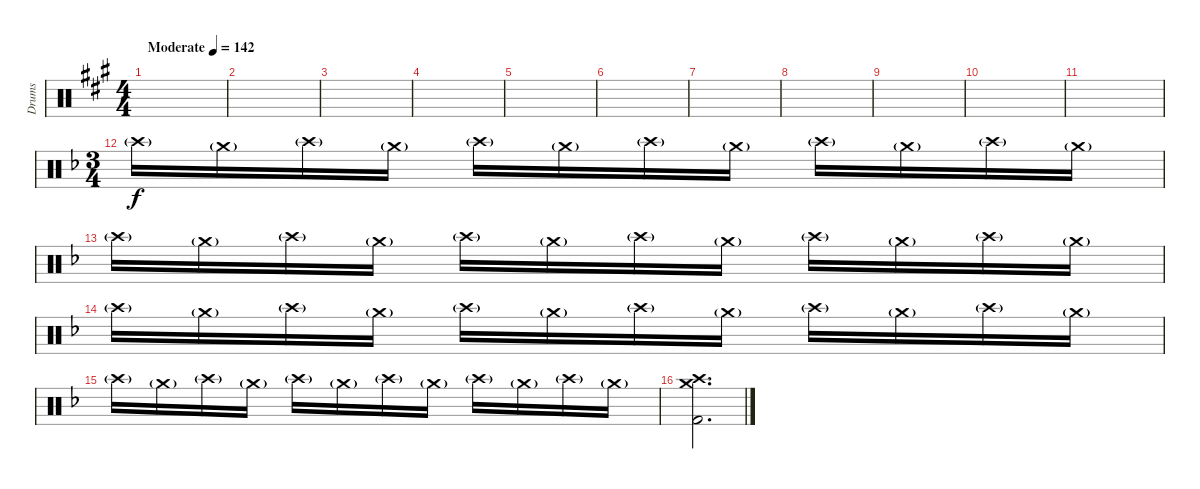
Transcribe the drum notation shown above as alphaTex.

\track ("Drums" "Drums") {instrument percussion}
\staff {score}
\articulation defaults
\ts (4 4)
\tempo (142 "Moderate")
\clef neutral
\ks f#minor
|
|
|
|
|
|
|
|
|
|
|
\ts (3 4)
\ks dminor "Crash high (hit)"{g}.16{volume 16} "Crash medium (hit)"{g}.16 "Crash high (hit)"{g}.16 "Crash medium (hit)"{g}.16 "Crash high (hit)"{g}.16 "Crash medium (hit)"{g}.16 "Crash high (hit)"{g}.16 "Crash medium (hit)"{g}.16 "Crash high (hit)"{g}.16 "Crash medium (hit)"{g}.16 "Crash high (hit)"{g}.16 "Crash medium (hit)"{g}.16
|
"Crash high (hit)"{g}.16 "Crash medium (hit)"{g}.16 "Crash high (hit)"{g}.16 "Crash medium (hit)"{g}.16 "Crash high (hit)"{g}.16 "Crash medium (hit)"{g}.16 "Crash high (hit)"{g}.16 "Crash medium (hit)"{g}.16 "Crash high (hit)"{g}.16 "Crash medium (hit)"{g}.16 "Crash high (hit)"{g}.16 "Crash medium (hit)"{g}.16 |
"Crash high (hit)"{g}.16 "Crash medium (hit)"{g}.16 "Crash high (hit)"{g}.16 "Crash medium (hit)"{g}.16 "Crash high (hit)"{g}.16 "Crash medium (hit)"{g}.16 "Crash high (hit)"{g}.16 "Crash medium (hit)"{g}.16 "Crash high (hit)"{g}.16 "Crash medium (hit)"{g}.16 "Crash high (hit)"{g}.16 "Crash medium (hit)"{g}.16 |
"Crash high (hit)"{g}.16 "Crash medium (hit)"{g}.16 "Crash high (hit)"{g}.16 "Crash medium (hit)"{g}.16 "Crash high (hit)"{g}.16 "Crash medium (hit)"{g}.16 "Crash high (hit)"{g}.16 "Crash medium (hit)"{g}.16 "Crash high (hit)"{g}.16 "Crash medium (hit)"{g}.16 "Crash high (hit)"{g}.16 "Crash medium (hit)"{g}.16 |
("Crash high (hit)" "Crash medium (hit)" "Kick (hit) 2").2{d dy f}
